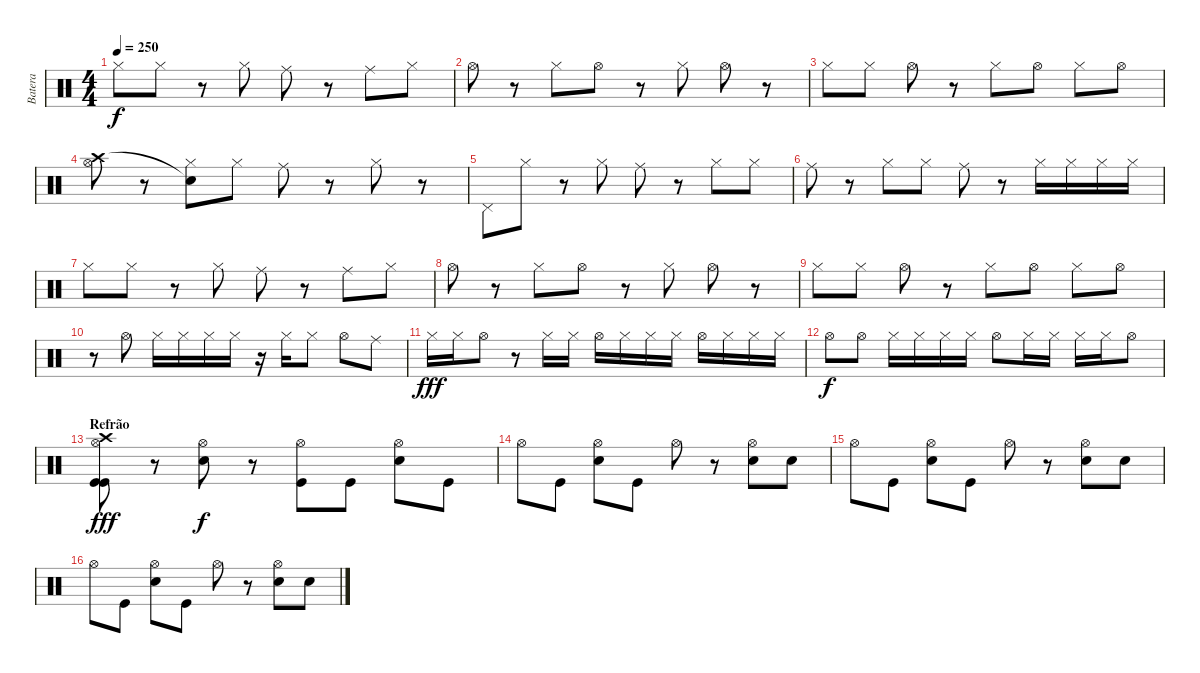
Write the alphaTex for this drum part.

\track ("Batera" "Batera") {instrument percussion}
\staff {score}
\articulation defaults
\ts (4 4)
\tempo 250
\clef neutral
\ks c "Hi-Hat (closed)".8{dy f} "Hi-Hat (closed)".8
r.8 "Hi-Hat (closed)".8 "Ride (middle)".8 r.8 "Ride (middle)".8 "Hi-Hat (closed)".8 |
"Hi-Hat (open)".8 r.8 "Hi-Hat (closed)".8 "Hi-Hat (open)".8 r.8 "Hi-Hat (closed)".8 "Hi-Hat (open)".8 r.8 |
"Hi-Hat (closed)".8 "Hi-Hat (closed)".8 "Hi-Hat (open)".8 r.8 "Hi-Hat (closed)".8 "Hi-Hat (open)".8 "Hi-Hat (closed)".8 "Hi-Hat (open)".8 |
("Crash high (hit)" "Hi-Hat (open)").8 r.8 ("Snare (hit)"{t} "Hi-Hat (closed)").8 "Hi-Hat (closed)".8 "Ride (middle)".8 r.8 "Hi-Hat (closed)".8 r.8 |
"Pedal Hi-Hat (hit)".8 "Hi-Hat (closed)".8 r.8 "Hi-Hat (closed)".8 "Ride (middle)".8 r.8 "Hi-Hat (closed)".8 "Hi-Hat (closed)".8 |
"Ride (middle)".8 r.8 "Hi-Hat (closed)".8 "Hi-Hat (closed)".8 "Ride (middle)".8 r.8 "Hi-Hat (closed)".16 "Hi-Hat (closed)".16 "Hi-Hat (closed)".16 "Hi-Hat (closed)".16 |
"Hi-Hat (closed)".8 "Hi-Hat (closed)".8 r.8 "Hi-Hat (closed)".8 "Ride (middle)".8 r.8 "Ride (middle)".8 "Hi-Hat (closed)".8 |
"Hi-Hat (open)".8 r.8 "Hi-Hat (closed)".8 "Hi-Hat (open)".8 r.8 "Hi-Hat (closed)".8 "Hi-Hat (open)".8 r.8 |
"Hi-Hat (closed)".8 "Hi-Hat (closed)".8 "Hi-Hat (open)".8 r.8 "Hi-Hat (closed)".8 "Hi-Hat (open)".8 "Hi-Hat (closed)".8 "Hi-Hat (open)".8 |
r.8 "Hi-Hat (open)".8 "Hi-Hat (closed)".16 "Hi-Hat (closed)".16 "Hi-Hat (closed)".16 "Hi-Hat (closed)".16 r.16 "Hi-Hat (closed)".16 "Hi-Hat (closed)".8 "Hi-Hat (open)".8 "Ride (middle)".8 |
"Hi-Hat (closed)".16{dy fff} "Hi-Hat (closed)".16 "Hi-Hat (open)".8 r.8 "Hi-Hat (closed)".16 "Hi-Hat (closed)".16 "Hi-Hat (open)".16 "Hi-Hat (closed)".16 "Hi-Hat (closed)".16 "Hi-Hat (closed)".16 "Hi-Hat (open)".16 "Hi-Hat (closed)".16 "Hi-Hat (closed)".16 "Hi-Hat (closed)".16 |
"Hi-Hat (open)".8{dy f} "Hi-Hat (open)".8 "Hi-Hat (closed)".16 "Hi-Hat (closed)".16 "Hi-Hat (closed)".16 "Hi-Hat (closed)".16 "Hi-Hat (open)".8 "Hi-Hat (closed)".16 "Hi-Hat (closed)".16 "Hi-Hat (closed)".16 "Hi-Hat (closed)".16 "Hi-Hat (open)".8 |
\section ("" "Refrão")
("Hi-Hat (open)" "Crash high (hit)" "Kick (hit)" "Kick (hit)").8{dy fff} r.8 ("Hi-Hat (open)" "Electric Snare (hit)").8{dy f} r.8 ("Hi-Hat (open)" "Kick (hit)").8 "Kick (hit)".8 ("Hi-Hat (open)" "Electric Snare (hit)").8 "Kick (hit)".8 |
"Hi-Hat (open)".8 "Kick (hit)".8 ("Hi-Hat (open)" "Electric Snare (hit)").8 "Kick (hit)".8 "Hi-Hat (open)".8 r.8 ("Hi-Hat (open)" "Electric Snare (hit)").8 "Electric Snare (hit)".8 |
"Hi-Hat (open)".8 "Kick (hit)".8 ("Hi-Hat (open)" "Electric Snare (hit)").8 "Kick (hit)".8 "Hi-Hat (open)".8 r.8 ("Hi-Hat (open)" "Electric Snare (hit)").8 "Electric Snare (hit)".8 |
"Hi-Hat (open)".8 "Kick (hit)".8 ("Hi-Hat (open)" "Electric Snare (hit)").8 "Kick (hit)".8 "Hi-Hat (open)".8 r.8 ("Hi-Hat (open)" "Electric Snare (hit)").8 "Electric Snare (hit)".8
